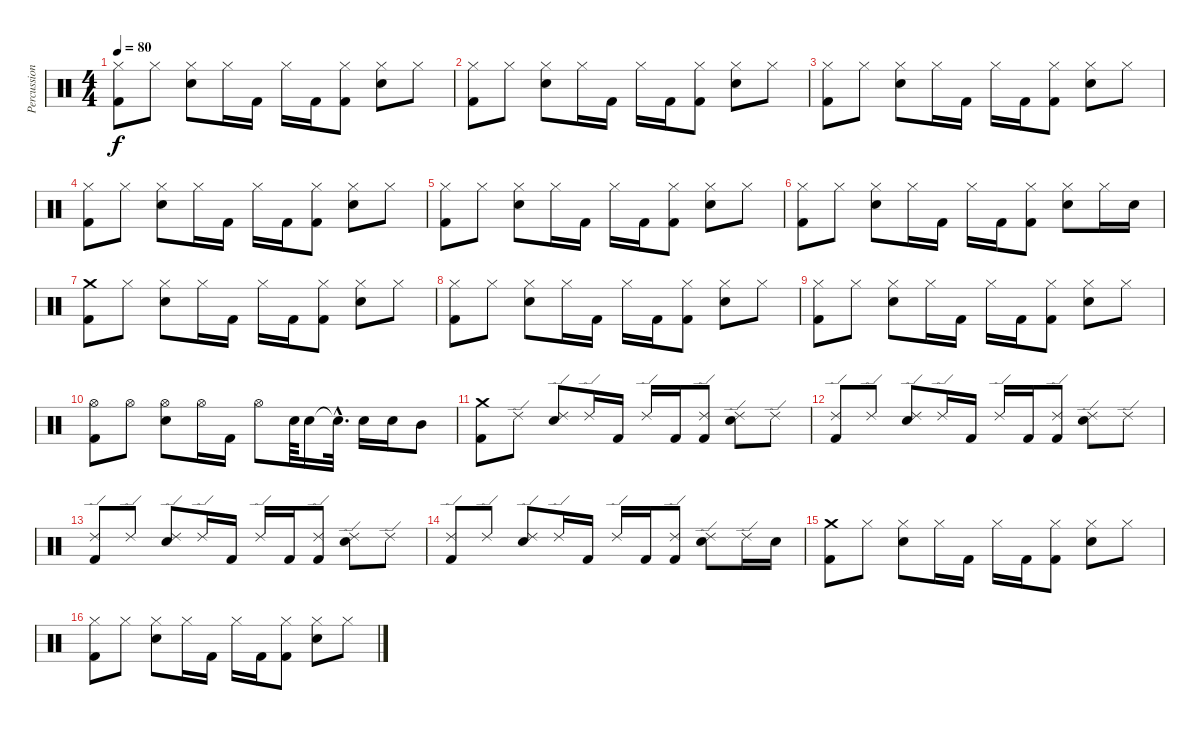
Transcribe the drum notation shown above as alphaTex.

\track ("Percussion" "Percussion") {instrument percussion}
\staff {score}
\articulation defaults
\ts (4 4)
\tempo 80
\clef neutral
\ks c
("Hi-Hat (closed)" "Kick (hit) 2").8{dy f} "Hi-Hat (closed)".8 ("Hi-Hat (closed)" "Snare (hit) 2").8 "Hi-Hat (closed)".16 "Kick (hit) 2".16 "Hi-Hat (closed)".16 "Kick (hit) 2".16 ("Hi-Hat (closed)" "Kick (hit) 2").8 ("Hi-Hat (closed)" "Snare (hit) 2").8 "Hi-Hat (closed)".8 |
("Hi-Hat (closed)" "Kick (hit) 2").8 "Hi-Hat (closed)".8 ("Hi-Hat (closed)" "Snare (hit) 2").8 "Hi-Hat (closed)".16 "Kick (hit) 2".16 "Hi-Hat (closed)".16 "Kick (hit) 2".16 ("Hi-Hat (closed)" "Kick (hit) 2").8 ("Hi-Hat (closed)" "Snare (hit) 2").8 "Hi-Hat (closed)".8 |
("Hi-Hat (closed)" "Kick (hit) 2").8 "Hi-Hat (closed)".8 ("Hi-Hat (closed)" "Snare (hit) 2").8 "Hi-Hat (closed)".16 "Kick (hit) 2".16 "Hi-Hat (closed)".16 "Kick (hit) 2".16 ("Hi-Hat (closed)" "Kick (hit) 2").8 ("Hi-Hat (closed)" "Snare (hit) 2").8 "Hi-Hat (closed)".8 |
("Hi-Hat (closed)" "Kick (hit) 2").8 "Hi-Hat (closed)".8 ("Hi-Hat (closed)" "Snare (hit) 2").8 "Hi-Hat (closed)".16 "Kick (hit) 2".16 "Hi-Hat (closed)".16 "Kick (hit) 2".16 ("Hi-Hat (closed)" "Kick (hit) 2").8 ("Hi-Hat (closed)" "Snare (hit) 2").8 "Hi-Hat (closed)".8 |
("Hi-Hat (closed)" "Kick (hit) 2").8 "Hi-Hat (closed)".8 ("Hi-Hat (closed)" "Snare (hit) 2").8 "Hi-Hat (closed)".16 "Kick (hit) 2".16 "Hi-Hat (closed)".16 "Kick (hit) 2".16 ("Hi-Hat (closed)" "Kick (hit) 2").8 ("Hi-Hat (closed)" "Snare (hit) 2").8 "Hi-Hat (closed)".8 |
("Hi-Hat (closed)" "Kick (hit) 2").8 "Hi-Hat (closed)".8 ("Hi-Hat (closed)" "Snare (hit) 2").8 "Hi-Hat (closed)".16 "Kick (hit) 2".16 "Hi-Hat (closed)".16 "Kick (hit) 2".16 ("Hi-Hat (closed)" "Kick (hit) 2").8 ("Hi-Hat (closed)" "Snare (hit) 2").8 "Hi-Hat (closed)".16 "Snare (hit) 2".16 |
("Crash medium (hit)" "Kick (hit) 2").8 "Hi-Hat (closed)".8 ("Hi-Hat (closed)" "Snare (hit) 2").8 "Hi-Hat (closed)".16 "Kick (hit) 2".16 "Hi-Hat (closed)".16 "Kick (hit) 2".16 ("Hi-Hat (closed)" "Kick (hit) 2").8 ("Hi-Hat (closed)" "Snare (hit) 2").8 "Hi-Hat (closed)".8 |
("Hi-Hat (closed)" "Kick (hit) 2").8 "Hi-Hat (closed)".8 ("Hi-Hat (closed)" "Snare (hit) 2").8 "Hi-Hat (closed)".16 "Kick (hit) 2".16 "Hi-Hat (closed)".16 "Kick (hit) 2".16 ("Hi-Hat (closed)" "Kick (hit) 2").8 ("Hi-Hat (closed)" "Snare (hit) 2").8 "Hi-Hat (closed)".8 |
("Hi-Hat (closed)" "Kick (hit) 2").8 "Hi-Hat (closed)".8 ("Hi-Hat (closed)" "Snare (hit) 2").8 "Hi-Hat (closed)".16 "Kick (hit) 2".16 "Hi-Hat (closed)".16 "Kick (hit) 2".16 ("Hi-Hat (closed)" "Kick (hit) 2").8 ("Hi-Hat (closed)" "Snare (hit) 2").8 "Hi-Hat (closed)".8 |
("Hi-Hat (open)" "Kick (hit) 2").8 "Hi-Hat (open)".8 ("Hi-Hat (open)" "Snare (hit) 2").8 "Hi-Hat (open)".16 "Kick (hit) 2".16 "Hi-Hat (open)".8 "Snare (hit) 2".64 "Snare (hit) 2".16 "Electric Snare (hit)"{hac t}.32{d} "Snare (hit) 2".16 "Snare (hit) 2".16 "Mid Tom (hit)".8 |
("Crash medium (hit)" "Kick (hit) 2").8 "Ride (edge) 2".8 ("Ride (edge) 2" "Snare (hit) 2").8 "Ride (edge) 2".16 "Kick (hit) 2".16 "Ride (edge) 2".16 "Kick (hit) 2".16 ("Ride (edge) 2" "Kick (hit) 2").8 ("Ride (edge) 2" "Snare (hit) 2").8 "Ride (edge) 2".8 |
("Ride (edge) 2" "Kick (hit) 2").8 "Ride (edge) 2".8 ("Ride (edge) 2" "Snare (hit) 2").8 "Ride (edge) 2".16 "Kick (hit) 2".16 "Ride (edge) 2".16 "Kick (hit) 2".16 ("Ride (edge) 2" "Kick (hit) 2").8 ("Ride (edge) 2" "Snare (hit) 2").8 "Ride (edge) 2".8 |
("Ride (edge) 2" "Kick (hit) 2").8 "Ride (edge) 2".8 ("Ride (edge) 2" "Snare (hit) 2").8 "Ride (edge) 2".16 "Kick (hit) 2".16 "Ride (edge) 2".16 "Kick (hit) 2".16 ("Ride (edge) 2" "Kick (hit) 2").8 ("Ride (edge) 2" "Snare (hit) 2").8 "Ride (edge) 2".8 |
("Ride (edge) 2" "Kick (hit) 2").8 "Ride (edge) 2".8 ("Ride (edge) 2" "Snare (hit) 2").8 "Ride (edge) 2".16 "Kick (hit) 2".16 "Ride (edge) 2".16 "Kick (hit) 2".16 ("Ride (edge) 2" "Kick (hit) 2").8 ("Ride (edge) 2" "Snare (hit) 2").8 "Ride (edge) 2".16 "Snare (hit) 2".16 |
("Crash medium (hit)" "Kick (hit) 2").8 "Hi-Hat (closed)".8 ("Hi-Hat (closed)" "Snare (hit) 2").8 "Hi-Hat (closed)".16 "Kick (hit) 2".16 "Hi-Hat (closed)".16 "Kick (hit) 2".16 ("Hi-Hat (closed)" "Kick (hit) 2").8 ("Hi-Hat (closed)" "Snare (hit) 2").8 "Hi-Hat (closed)".8 |
("Hi-Hat (closed)" "Kick (hit) 2").8 "Hi-Hat (closed)".8 ("Hi-Hat (closed)" "Snare (hit) 2").8 "Hi-Hat (closed)".16 "Kick (hit) 2".16 "Hi-Hat (closed)".16 "Kick (hit) 2".16 ("Hi-Hat (closed)" "Kick (hit) 2").8 ("Hi-Hat (closed)" "Snare (hit) 2").8 "Hi-Hat (closed)".8
